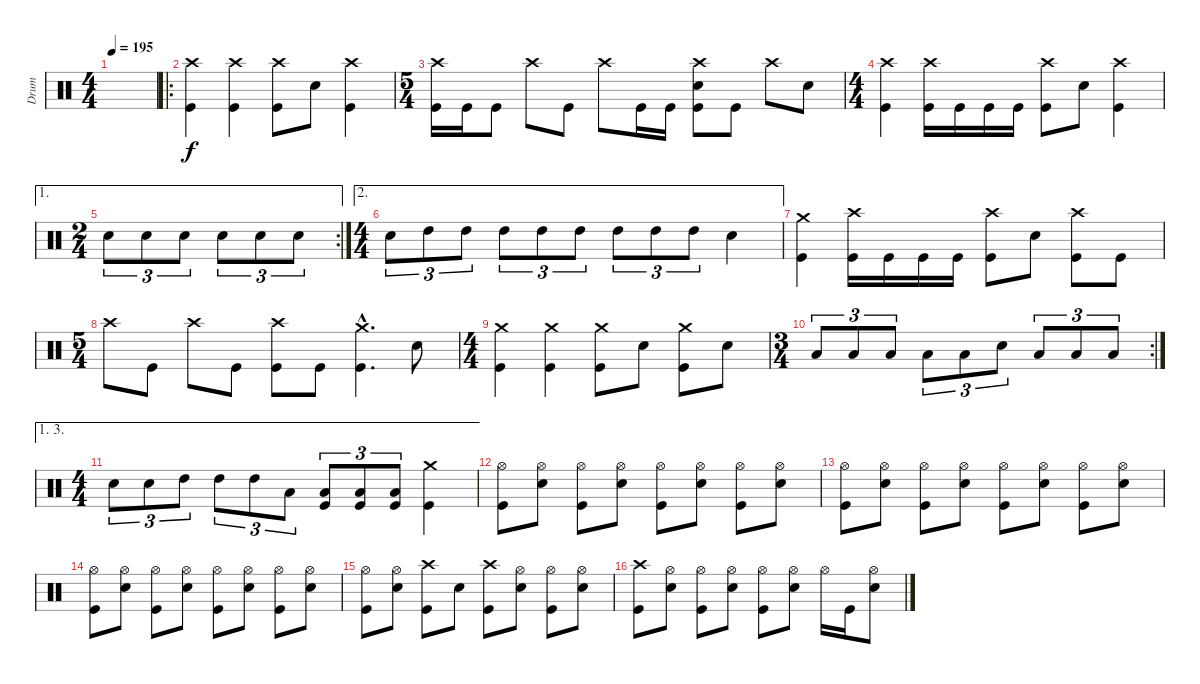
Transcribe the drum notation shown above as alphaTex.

\track ("Drum" "Drum") {instrument percussion}
\staff {score}
\articulation defaults
\ts (4 4)
\tempo 195
\clef neutral
\ks c
|
\ro
("Crash high (hit)" "Kick (hit)").4 ("Crash high (hit)" "Kick (hit)").4 ("Crash high (hit)" "Kick (hit)").8 "Snare (hit) 2".8 ("Crash high (hit)" "Kick (hit)").4 |
\ts (5 4)
("Crash high (hit)" "Kick (hit)").16 "Kick (hit)".16 "Kick (hit)".8 "Crash high (hit)".8 "Kick (hit)".8 "Crash high (hit)".8 "Kick (hit)".16 "Kick (hit)".16 ("Crash high (hit)" "Snare (hit) 2" "Kick (hit)").8 "Kick (hit)".8 "Crash high (hit)".8 "Snare (hit) 2".8 |
\ts (4 4)
("Crash high (hit)" "Kick (hit)").4 ("Crash high (hit)" "Kick (hit)").16 "Kick (hit)".16 "Kick (hit)".16 "Kick (hit)".16 ("Crash high (hit)" "Kick (hit)").8 "Snare (hit) 2".8 ("Crash high (hit)" "Kick (hit)").4 |
\ae 1
\rc 2
\ts (2 4)
"Snare (hit) 2".8{tu (3 2)} "Snare (hit) 2".8{tu (3 2)} "Snare (hit) 2".8{tu (3 2)} "Snare (hit) 2".8{tu (3 2)} "Snare (hit) 2".8{tu (3 2)} "Snare (hit) 2".8{tu (3 2)} |
\ae 2
\ts (4 4)
"Snare (hit) 2".8{tu (3 2)} "High Tom (hit)".8{tu (3 2)} "High Tom (hit)".8{tu (3 2)} "High Tom (hit)".8{tu (3 2)} "High Tom (hit)".8{tu (3 2)} "High Tom (hit)".8{tu (3 2)} "High Tom (hit)".8{tu (3 2)} "High Tom (hit)".8{tu (3 2)} "High Tom (hit)".8{tu (3 2)} "Snare (hit) 2".4 |
("Crash medium (hit)" "Kick (hit)").4 ("Crash high (hit)" "Kick (hit)").16 "Kick (hit)".16 "Kick (hit)".16 "Kick (hit)".16 ("Crash high (hit)" "Kick (hit)").8 "Snare (hit) 2".8 ("Crash high (hit)" "Kick (hit)").8 "Kick (hit)".8 |
\ts (5 4)
"Crash high (hit)".8 "Kick (hit)".8 "Crash high (hit)".8 "Kick (hit)".8 ("Crash high (hit)" "Kick (hit)").8 "Kick (hit)".8 ("Crash medium (hit)"{hac} "Kick (hit)"{hac}).4{d} "Snare (hit) 2".8 |
\ts (4 4)
("Crash medium (hit)" "Kick (hit)").4 ("Crash medium (hit)" "Kick (hit)").4 ("Crash medium (hit)" "Kick (hit)").8 "Snare (hit) 2".8 ("Crash medium (hit)" "Kick (hit)").8 "Snare (hit) 2".8 |
\rc 2
\ts (3 4)
"Low Tom (hit)".8{tu (3 2)} "Low Tom (hit)".8{tu (3 2)} "Low Tom (hit)".8{tu (3 2)} "Low Tom (hit)".8{tu (3 2)} "Low Tom (hit)".8{tu (3 2)} "Snare (hit) 2".8{tu (3 2)} "Low Tom (hit)".8{tu (3 2)} "Low Tom (hit)".8{tu (3 2)} "Low Tom (hit)".8{tu (3 2)} |
\ae (1 3)
\ts (4 4)
"Snare (hit) 2".8{tu (3 2)} "Snare (hit) 2".8{tu (3 2)} "High Tom (hit)".8{tu (3 2)} "High Tom (hit)".8{tu (3 2)} "High Tom (hit)".8{tu (3 2)} "Low Tom (hit)".8{tu (3 2)} ("Low Tom (hit)" "Kick (hit)").8{tu (3 2)} ("Low Tom (hit)" "Kick (hit)").8{tu (3 2)} ("Low Tom (hit)" "Kick (hit)").8{tu (3 2)} ("Crash medium (hit)" "Kick (hit)").4 |
("Hi-Hat (open)" "Kick (hit)").8 ("Hi-Hat (open)" "Snare (hit) 2").8 ("Hi-Hat (open)" "Kick (hit)").8 ("Hi-Hat (open)" "Snare (hit) 2").8 ("Hi-Hat (open)" "Kick (hit)").8 ("Hi-Hat (open)" "Snare (hit) 2").8 ("Hi-Hat (open)" "Kick (hit)").8 ("Hi-Hat (open)" "Snare (hit) 2").8 |
("Hi-Hat (open)" "Kick (hit)").8 ("Hi-Hat (open)" "Snare (hit) 2").8 ("Hi-Hat (open)" "Kick (hit)").8 ("Hi-Hat (open)" "Snare (hit) 2").8 ("Hi-Hat (open)" "Kick (hit)").8 ("Hi-Hat (open)" "Snare (hit) 2").8 ("Hi-Hat (open)" "Kick (hit)").8 ("Hi-Hat (open)" "Snare (hit) 2").8 |
("Hi-Hat (open)" "Kick (hit)").8 ("Hi-Hat (open)" "Snare (hit) 2").8 ("Hi-Hat (open)" "Kick (hit)").8 ("Hi-Hat (open)" "Snare (hit) 2").8 ("Hi-Hat (open)" "Kick (hit)").8 ("Hi-Hat (open)" "Snare (hit) 2").8 ("Hi-Hat (open)" "Kick (hit)").8 ("Hi-Hat (open)" "Snare (hit) 2").8 |
("Hi-Hat (open)" "Kick (hit)").8 ("Hi-Hat (open)" "Snare (hit) 2").8 ("Crash high (hit)" "Kick (hit)").8 "Snare (hit) 2".8 ("Crash high (hit)" "Kick (hit)").8 ("Hi-Hat (open)" "Snare (hit) 2").8 ("Hi-Hat (open)" "Kick (hit)").8 ("Hi-Hat (open)" "Snare (hit) 2").8 |
("Crash high (hit)" "Kick (hit)").8 ("Hi-Hat (open)" "Snare (hit) 2").8 ("Hi-Hat (open)" "Kick (hit)").8 ("Hi-Hat (open)" "Snare (hit) 2").8 ("Hi-Hat (open)" "Kick (hit)").8 ("Hi-Hat (open)" "Snare (hit) 2").8 "Hi-Hat (open)".16 "Kick (hit)".16 ("Hi-Hat (open)" "Snare (hit) 2").8
